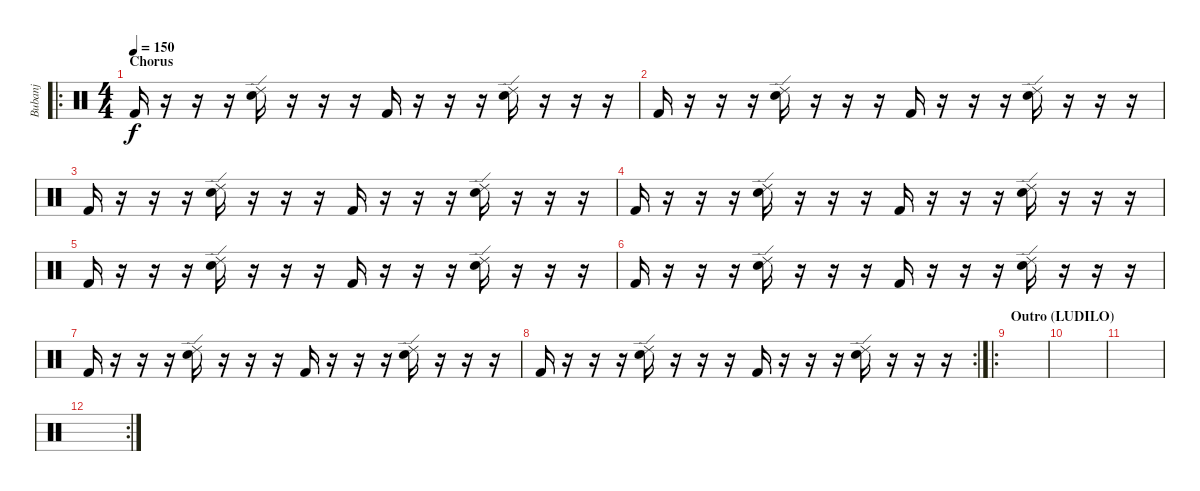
\track ("Bubanj" "Bubanj") {instrument percussion}
\staff {score}
\articulation defaults
\ro
\ts (4 4)
\section ("" "Chorus")
\tempo 150
\clef neutral
\ks c "Kick (hit) 2".16{dy f}
r.16 r.16 r.16 ("Ride (edge) 2" "Snare (hit) 2").16 r.16 r.16 r.16 "Kick (hit) 2".16 r.16 r.16 r.16 ("Ride (edge) 2" "Snare (hit) 2").16 r.16 r.16 r.16 |
"Kick (hit) 2".16 r.16 r.16 r.16 ("Ride (edge) 2" "Snare (hit) 2").16 r.16 r.16 r.16 "Kick (hit) 2".16 r.16 r.16 r.16 ("Ride (edge) 2" "Snare (hit) 2").16 r.16 r.16 r.16 |
"Kick (hit) 2".16 r.16 r.16 r.16 ("Ride (edge) 2" "Snare (hit) 2").16 r.16 r.16 r.16 "Kick (hit) 2".16 r.16 r.16 r.16 ("Ride (edge) 2" "Snare (hit) 2").16 r.16 r.16 r.16 |
"Kick (hit) 2".16 r.16 r.16 r.16 ("Ride (edge) 2" "Snare (hit) 2").16 r.16 r.16 r.16 "Kick (hit) 2".16 r.16 r.16 r.16 ("Ride (edge) 2" "Snare (hit) 2").16 r.16 r.16 r.16 |
"Kick (hit) 2".16 r.16 r.16 r.16 ("Ride (edge) 2" "Snare (hit) 2").16 r.16 r.16 r.16 "Kick (hit) 2".16 r.16 r.16 r.16 ("Ride (edge) 2" "Snare (hit) 2").16 r.16 r.16 r.16 |
"Kick (hit) 2".16 r.16 r.16 r.16 ("Ride (edge) 2" "Snare (hit) 2").16 r.16 r.16 r.16 "Kick (hit) 2".16 r.16 r.16 r.16 ("Ride (edge) 2" "Snare (hit) 2").16 r.16 r.16 r.16 |
"Kick (hit) 2".16 r.16 r.16 r.16 ("Ride (edge) 2" "Snare (hit) 2").16 r.16 r.16 r.16 "Kick (hit) 2".16 r.16 r.16 r.16 ("Ride (edge) 2" "Snare (hit) 2").16 r.16 r.16 r.16 |
\rc 2 "Kick (hit) 2".16
r.16 r.16 r.16 ("Ride (edge) 2" "Snare (hit) 2").16 r.16 r.16 r.16 "Kick (hit) 2".16 r.16 r.16 r.16 ("Ride (edge) 2" "Snare (hit) 2").16 r.16 r.16 r.16 |
\ro
\section ("" "Outro (LUDILO)")
|
|
|
\rc 2
